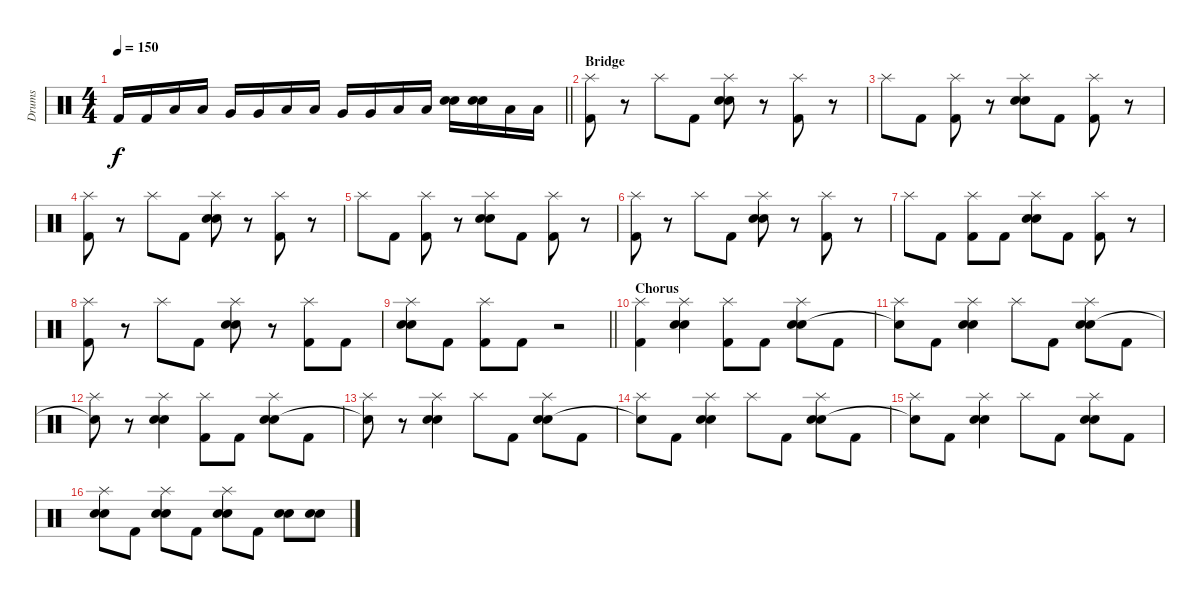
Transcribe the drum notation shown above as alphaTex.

\track ("Drums" "Drums") {instrument percussion}
\staff {score}
\articulation defaults
\ts (4 4)
\tempo 150
\clef neutral
\barLineRight lightlight
\ks c "Kick (hit) 2".16{dy f} "Kick (hit) 2".16 "Low Tom (hit)".16 "Low Tom (hit)".16 "Very Low Tom (hit)".16 "Very Low Tom (hit)".16 "Low Tom (hit)".16 "Low Tom (hit)".16 "Very Low Tom (hit)".16 "Very Low Tom (hit)".16 "Low Tom (hit)".16 "Low Tom (hit)".16
("Electric Snare (hit)" "Snare (hit) 2").16 ("Electric Snare (hit)" "Snare (hit) 2").16 "Low Tom (hit)".16 "Low Tom (hit)".16 |
\section ("" "Bridge")
("Splash (hit)" "Kick (hit) 2").8 r.8 "Splash (hit)".8 "Kick (hit) 2".8 ("Splash (hit)" "Electric Snare (hit)" "Snare (hit) 2").8 r.8 ("Splash (hit)" "Kick (hit) 2").8 r.8 |
"Splash (hit)".8 "Kick (hit) 2".8 ("Splash (hit)" "Kick (hit) 2").8 r.8 ("Splash (hit)" "Electric Snare (hit)" "Snare (hit) 2").8 "Kick (hit) 2".8 ("Splash (hit)" "Kick (hit) 2").8 r.8 |
("Splash (hit)" "Kick (hit) 2").8 r.8 "Splash (hit)".8 "Kick (hit) 2".8 ("Splash (hit)" "Electric Snare (hit)" "Snare (hit) 2").8 r.8 ("Splash (hit)" "Kick (hit) 2").8 r.8 |
"Splash (hit)".8 "Kick (hit) 2".8 ("Splash (hit)" "Kick (hit) 2").8 r.8 ("Splash (hit)" "Electric Snare (hit)" "Snare (hit) 2").8 "Kick (hit) 2".8 ("Splash (hit)" "Kick (hit) 2").8 r.8 |
("Splash (hit)" "Kick (hit) 2").8 r.8 "Splash (hit)".8 "Kick (hit) 2".8 ("Splash (hit)" "Electric Snare (hit)" "Snare (hit) 2").8 r.8 ("Splash (hit)" "Kick (hit) 2").8 r.8 |
"Splash (hit)".8 "Kick (hit) 2".8 ("Splash (hit)" "Kick (hit) 2").8 "Kick (hit) 2".8 ("Splash (hit)" "Electric Snare (hit)" "Snare (hit) 2").8 "Kick (hit) 2".8 ("Splash (hit)" "Kick (hit) 2").8 r.8 |
("Splash (hit)" "Kick (hit) 2").8 r.8 "Splash (hit)".8 "Kick (hit) 2".8 ("Splash (hit)" "Electric Snare (hit)" "Snare (hit) 2").8 r.8 ("Splash (hit)" "Kick (hit) 2").8 "Kick (hit) 2".8 |
\barLineRight lightlight
("Splash (hit)" "Electric Snare (hit)" "Snare (hit) 2").8 "Kick (hit) 2".8 ("Splash (hit)" "Kick (hit) 2").8 "Kick (hit) 2".8 r.2 |
\section ("" "Chorus")
("Splash (hit)" "Kick (hit) 2").4 ("Splash (hit)" "Electric Snare (hit)" "Snare (hit) 2").4 ("Splash (hit)" "Kick (hit) 2").8 "Kick (hit) 2".8 ("Splash (hit)" "Electric Snare (hit)" "Snare (hit) 2").8 "Kick (hit) 2".8 |
("Splash (hit)" "Snare (hit)"{t}).8 "Kick (hit) 2".8 ("Splash (hit)" "Electric Snare (hit)" "Snare (hit) 2").4 "Splash (hit)".8 "Kick (hit) 2".8 ("Splash (hit)" "Electric Snare (hit)" "Snare (hit) 2").8 "Kick (hit) 2".8 |
("Splash (hit)" "Snare (hit)"{t}).8 r.8 ("Splash (hit)" "Electric Snare (hit)" "Snare (hit) 2").4 ("Splash (hit)" "Kick (hit) 2").8 "Kick (hit) 2".8 ("Splash (hit)" "Electric Snare (hit)" "Snare (hit) 2").8 "Kick (hit) 2".8 |
("Splash (hit)" "Snare (hit)"{t}).8 r.8 ("Splash (hit)" "Electric Snare (hit)" "Snare (hit) 2").4 "Splash (hit)".8 "Kick (hit) 2".8 ("Splash (hit)" "Electric Snare (hit)" "Snare (hit) 2").8 "Kick (hit) 2".8 |
("Splash (hit)" "Snare (hit)"{t}).8 "Kick (hit) 2".8 ("Splash (hit)" "Electric Snare (hit)" "Snare (hit) 2").4 "Splash (hit)".8 "Kick (hit) 2".8 ("Splash (hit)" "Electric Snare (hit)" "Snare (hit) 2").8 "Kick (hit) 2".8 |
("Splash (hit)" "Snare (hit)"{t}).8 "Kick (hit) 2".8 ("Splash (hit)" "Electric Snare (hit)" "Snare (hit) 2").4 "Splash (hit)".8 "Kick (hit) 2".8 ("Splash (hit)" "Electric Snare (hit)" "Snare (hit) 2").8 "Kick (hit) 2".8 |
("Splash (hit)" "Electric Snare (hit)" "Snare (hit) 2").8 "Kick (hit) 2".8 ("Splash (hit)" "Electric Snare (hit)" "Snare (hit) 2").8 "Kick (hit) 2".8 ("Splash (hit)" "Electric Snare (hit)" "Snare (hit) 2").8 "Kick (hit) 2".8 ("Electric Snare (hit)" "Snare (hit) 2").8 ("Electric Snare (hit)" "Snare (hit) 2").8
